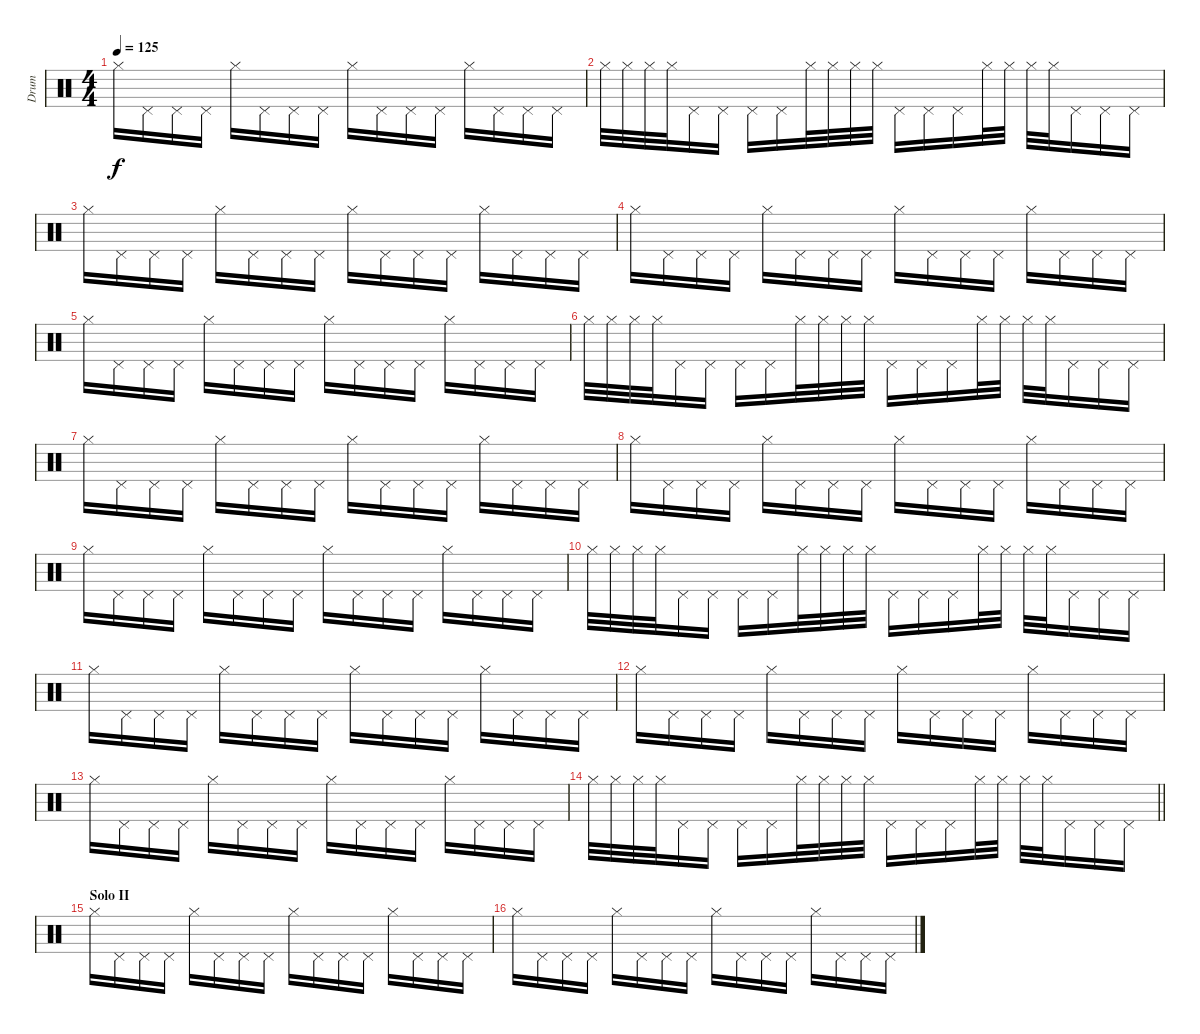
\track ("Drum" "Drum") {instrument percussion}
\staff {score}
\articulation defaults
\ts (4 4)
\tempo 125
\clef neutral
\ks c "Hi-Hat (closed)".16{dy f} "Pedal Hi-Hat (hit)".16 "Pedal Hi-Hat (hit)".16 "Pedal Hi-Hat (hit)".16 "Hi-Hat (closed)".16 "Pedal Hi-Hat (hit)".16 "Pedal Hi-Hat (hit)".16 "Pedal Hi-Hat (hit)".16 "Hi-Hat (closed)".16 "Pedal Hi-Hat (hit)".16 "Pedal Hi-Hat (hit)".16 "Pedal Hi-Hat (hit)".16 "Hi-Hat (closed)".16 "Pedal Hi-Hat (hit)".16 "Pedal Hi-Hat (hit)".16 "Pedal Hi-Hat (hit)".16
|
"Hi-Hat (closed)".32 "Hi-Hat (closed)".32 "Hi-Hat (closed)".32 "Hi-Hat (closed)".32 "Pedal Hi-Hat (hit)".16 "Pedal Hi-Hat (hit)".16 "Pedal Hi-Hat (hit)".16 "Pedal Hi-Hat (hit)".16 "Hi-Hat (closed)".32 "Hi-Hat (closed)".32 "Hi-Hat (closed)".32 "Hi-Hat (closed)".32 "Pedal Hi-Hat (hit)".16 "Pedal Hi-Hat (hit)".16 "Pedal Hi-Hat (hit)".16 "Hi-Hat (closed)".32 "Hi-Hat (closed)".32 "Hi-Hat (closed)".32 "Hi-Hat (closed)".32 "Pedal Hi-Hat (hit)".16 "Pedal Hi-Hat (hit)".16 "Pedal Hi-Hat (hit)".16 |
"Hi-Hat (closed)".16 "Pedal Hi-Hat (hit)".16 "Pedal Hi-Hat (hit)".16 "Pedal Hi-Hat (hit)".16 "Hi-Hat (closed)".16 "Pedal Hi-Hat (hit)".16 "Pedal Hi-Hat (hit)".16 "Pedal Hi-Hat (hit)".16 "Hi-Hat (closed)".16 "Pedal Hi-Hat (hit)".16 "Pedal Hi-Hat (hit)".16 "Pedal Hi-Hat (hit)".16 "Hi-Hat (closed)".16 "Pedal Hi-Hat (hit)".16 "Pedal Hi-Hat (hit)".16 "Pedal Hi-Hat (hit)".16 |
"Hi-Hat (closed)".16 "Pedal Hi-Hat (hit)".16 "Pedal Hi-Hat (hit)".16 "Pedal Hi-Hat (hit)".16 "Hi-Hat (closed)".16 "Pedal Hi-Hat (hit)".16 "Pedal Hi-Hat (hit)".16 "Pedal Hi-Hat (hit)".16 "Hi-Hat (closed)".16 "Pedal Hi-Hat (hit)".16 "Pedal Hi-Hat (hit)".16 "Pedal Hi-Hat (hit)".16 "Hi-Hat (closed)".16 "Pedal Hi-Hat (hit)".16 "Pedal Hi-Hat (hit)".16 "Pedal Hi-Hat (hit)".16 |
"Hi-Hat (closed)".16 "Pedal Hi-Hat (hit)".16 "Pedal Hi-Hat (hit)".16 "Pedal Hi-Hat (hit)".16 "Hi-Hat (closed)".16 "Pedal Hi-Hat (hit)".16 "Pedal Hi-Hat (hit)".16 "Pedal Hi-Hat (hit)".16 "Hi-Hat (closed)".16 "Pedal Hi-Hat (hit)".16 "Pedal Hi-Hat (hit)".16 "Pedal Hi-Hat (hit)".16 "Hi-Hat (closed)".16 "Pedal Hi-Hat (hit)".16 "Pedal Hi-Hat (hit)".16 "Pedal Hi-Hat (hit)".16 |
"Hi-Hat (closed)".32 "Hi-Hat (closed)".32 "Hi-Hat (closed)".32 "Hi-Hat (closed)".32 "Pedal Hi-Hat (hit)".16 "Pedal Hi-Hat (hit)".16 "Pedal Hi-Hat (hit)".16 "Pedal Hi-Hat (hit)".16 "Hi-Hat (closed)".32 "Hi-Hat (closed)".32 "Hi-Hat (closed)".32 "Hi-Hat (closed)".32 "Pedal Hi-Hat (hit)".16 "Pedal Hi-Hat (hit)".16 "Pedal Hi-Hat (hit)".16 "Hi-Hat (closed)".32 "Hi-Hat (closed)".32 "Hi-Hat (closed)".32 "Hi-Hat (closed)".32 "Pedal Hi-Hat (hit)".16 "Pedal Hi-Hat (hit)".16 "Pedal Hi-Hat (hit)".16 |
"Hi-Hat (closed)".16 "Pedal Hi-Hat (hit)".16 "Pedal Hi-Hat (hit)".16 "Pedal Hi-Hat (hit)".16 "Hi-Hat (closed)".16 "Pedal Hi-Hat (hit)".16 "Pedal Hi-Hat (hit)".16 "Pedal Hi-Hat (hit)".16 "Hi-Hat (closed)".16 "Pedal Hi-Hat (hit)".16 "Pedal Hi-Hat (hit)".16 "Pedal Hi-Hat (hit)".16 "Hi-Hat (closed)".16 "Pedal Hi-Hat (hit)".16 "Pedal Hi-Hat (hit)".16 "Pedal Hi-Hat (hit)".16 |
"Hi-Hat (closed)".16 "Pedal Hi-Hat (hit)".16 "Pedal Hi-Hat (hit)".16 "Pedal Hi-Hat (hit)".16 "Hi-Hat (closed)".16 "Pedal Hi-Hat (hit)".16 "Pedal Hi-Hat (hit)".16 "Pedal Hi-Hat (hit)".16 "Hi-Hat (closed)".16 "Pedal Hi-Hat (hit)".16 "Pedal Hi-Hat (hit)".16 "Pedal Hi-Hat (hit)".16 "Hi-Hat (closed)".16 "Pedal Hi-Hat (hit)".16 "Pedal Hi-Hat (hit)".16 "Pedal Hi-Hat (hit)".16 |
"Hi-Hat (closed)".16 "Pedal Hi-Hat (hit)".16 "Pedal Hi-Hat (hit)".16 "Pedal Hi-Hat (hit)".16 "Hi-Hat (closed)".16 "Pedal Hi-Hat (hit)".16 "Pedal Hi-Hat (hit)".16 "Pedal Hi-Hat (hit)".16 "Hi-Hat (closed)".16 "Pedal Hi-Hat (hit)".16 "Pedal Hi-Hat (hit)".16 "Pedal Hi-Hat (hit)".16 "Hi-Hat (closed)".16 "Pedal Hi-Hat (hit)".16 "Pedal Hi-Hat (hit)".16 "Pedal Hi-Hat (hit)".16 |
"Hi-Hat (closed)".32 "Hi-Hat (closed)".32 "Hi-Hat (closed)".32 "Hi-Hat (closed)".32 "Pedal Hi-Hat (hit)".16 "Pedal Hi-Hat (hit)".16 "Pedal Hi-Hat (hit)".16 "Pedal Hi-Hat (hit)".16 "Hi-Hat (closed)".32 "Hi-Hat (closed)".32 "Hi-Hat (closed)".32 "Hi-Hat (closed)".32 "Pedal Hi-Hat (hit)".16 "Pedal Hi-Hat (hit)".16 "Pedal Hi-Hat (hit)".16 "Hi-Hat (closed)".32 "Hi-Hat (closed)".32 "Hi-Hat (closed)".32 "Hi-Hat (closed)".32 "Pedal Hi-Hat (hit)".16 "Pedal Hi-Hat (hit)".16 "Pedal Hi-Hat (hit)".16 |
"Hi-Hat (closed)".16 "Pedal Hi-Hat (hit)".16 "Pedal Hi-Hat (hit)".16 "Pedal Hi-Hat (hit)".16 "Hi-Hat (closed)".16 "Pedal Hi-Hat (hit)".16 "Pedal Hi-Hat (hit)".16 "Pedal Hi-Hat (hit)".16 "Hi-Hat (closed)".16 "Pedal Hi-Hat (hit)".16 "Pedal Hi-Hat (hit)".16 "Pedal Hi-Hat (hit)".16 "Hi-Hat (closed)".16 "Pedal Hi-Hat (hit)".16 "Pedal Hi-Hat (hit)".16 "Pedal Hi-Hat (hit)".16 |
"Hi-Hat (closed)".16 "Pedal Hi-Hat (hit)".16 "Pedal Hi-Hat (hit)".16 "Pedal Hi-Hat (hit)".16 "Hi-Hat (closed)".16 "Pedal Hi-Hat (hit)".16 "Pedal Hi-Hat (hit)".16 "Pedal Hi-Hat (hit)".16 "Hi-Hat (closed)".16 "Pedal Hi-Hat (hit)".16 "Pedal Hi-Hat (hit)".16 "Pedal Hi-Hat (hit)".16 "Hi-Hat (closed)".16 "Pedal Hi-Hat (hit)".16 "Pedal Hi-Hat (hit)".16 "Pedal Hi-Hat (hit)".16 |
"Hi-Hat (closed)".16 "Pedal Hi-Hat (hit)".16 "Pedal Hi-Hat (hit)".16 "Pedal Hi-Hat (hit)".16 "Hi-Hat (closed)".16 "Pedal Hi-Hat (hit)".16 "Pedal Hi-Hat (hit)".16 "Pedal Hi-Hat (hit)".16 "Hi-Hat (closed)".16 "Pedal Hi-Hat (hit)".16 "Pedal Hi-Hat (hit)".16 "Pedal Hi-Hat (hit)".16 "Hi-Hat (closed)".16 "Pedal Hi-Hat (hit)".16 "Pedal Hi-Hat (hit)".16 "Pedal Hi-Hat (hit)".16 |
\barLineRight lightlight "Hi-Hat (closed)".32 "Hi-Hat (closed)".32 "Hi-Hat (closed)".32 "Hi-Hat (closed)".32 "Pedal Hi-Hat (hit)".16 "Pedal Hi-Hat (hit)".16 "Pedal Hi-Hat (hit)".16 "Pedal Hi-Hat (hit)".16 "Hi-Hat (closed)".32 "Hi-Hat (closed)".32 "Hi-Hat (closed)".32 "Hi-Hat (closed)".32 "Pedal Hi-Hat (hit)".16 "Pedal Hi-Hat (hit)".16 "Pedal Hi-Hat (hit)".16 "Hi-Hat (closed)".32 "Hi-Hat (closed)".32 "Hi-Hat (closed)".32 "Hi-Hat (closed)".32 "Pedal Hi-Hat (hit)".16 "Pedal Hi-Hat (hit)".16 "Pedal Hi-Hat (hit)".16
|
\section ("" "Solo II")
"Hi-Hat (closed)".16 "Pedal Hi-Hat (hit)".16 "Pedal Hi-Hat (hit)".16 "Pedal Hi-Hat (hit)".16 "Hi-Hat (closed)".16 "Pedal Hi-Hat (hit)".16 "Pedal Hi-Hat (hit)".16 "Pedal Hi-Hat (hit)".16 "Hi-Hat (closed)".16 "Pedal Hi-Hat (hit)".16 "Pedal Hi-Hat (hit)".16 "Pedal Hi-Hat (hit)".16 "Hi-Hat (closed)".16 "Pedal Hi-Hat (hit)".16 "Pedal Hi-Hat (hit)".16 "Pedal Hi-Hat (hit)".16 |
"Hi-Hat (closed)".16 "Pedal Hi-Hat (hit)".16 "Pedal Hi-Hat (hit)".16 "Pedal Hi-Hat (hit)".16 "Hi-Hat (closed)".16 "Pedal Hi-Hat (hit)".16 "Pedal Hi-Hat (hit)".16 "Pedal Hi-Hat (hit)".16 "Hi-Hat (closed)".16 "Pedal Hi-Hat (hit)".16 "Pedal Hi-Hat (hit)".16 "Pedal Hi-Hat (hit)".16 "Hi-Hat (closed)".16 "Pedal Hi-Hat (hit)".16 "Pedal Hi-Hat (hit)".16 "Pedal Hi-Hat (hit)".16
